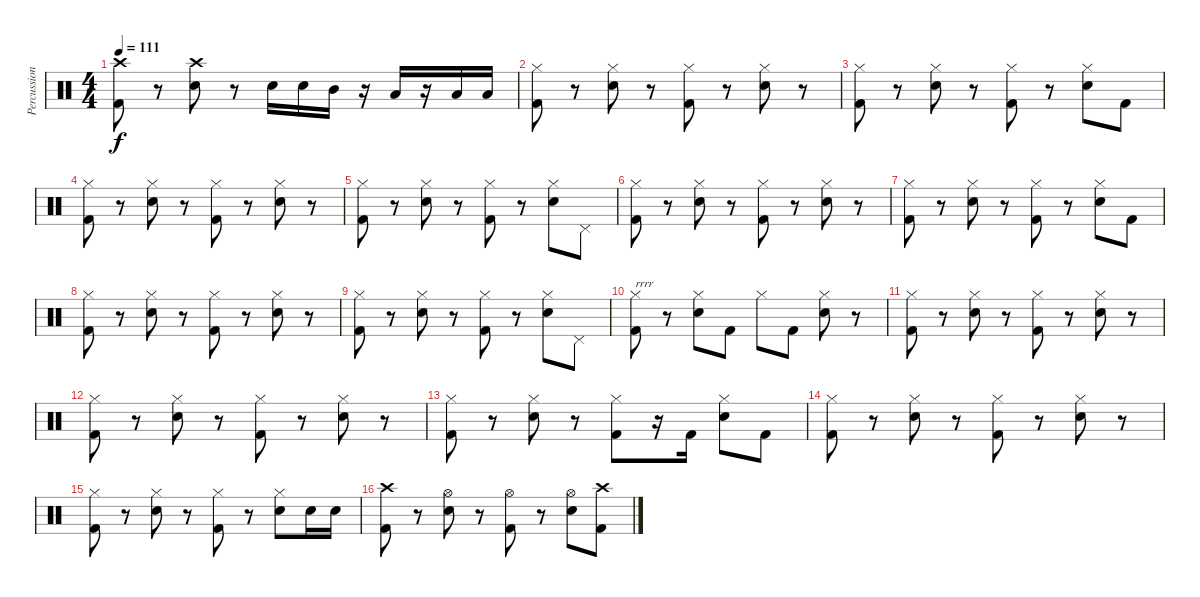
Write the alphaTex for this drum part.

\track ("Percussion" "Percussion") {instrument percussion}
\staff {score}
\articulation defaults
\ts (4 4)
\tempo 111
\clef neutral
\ks c
("Crash high (hit)" "Kick (hit) 2").8{dy f} r.8 ("Crash high (hit)" "Snare (hit) 2").8 r.8 "Snare (hit) 2".16 "Snare (hit) 2".16 "Mid Tom (hit)".16 r.16 "Low Tom (hit)".16 r.16 "Low Tom (hit)".16 "Low Tom (hit)".16 |
("Hi-Hat (closed)" "Kick (hit) 2").8 r.8 ("Hi-Hat (closed)" "Snare (hit) 2").8 r.8 ("Hi-Hat (closed)" "Kick (hit) 2").8 r.8 ("Hi-Hat (closed)" "Snare (hit) 2").8 r.8 |
("Hi-Hat (closed)" "Kick (hit) 2").8 r.8 ("Hi-Hat (closed)" "Snare (hit) 2").8 r.8 ("Hi-Hat (closed)" "Kick (hit) 2").8 r.8 ("Hi-Hat (closed)" "Snare (hit) 2").8 "Kick (hit) 2".8 |
("Hi-Hat (closed)" "Kick (hit) 2").8 r.8 ("Hi-Hat (closed)" "Snare (hit) 2").8 r.8 ("Hi-Hat (closed)" "Kick (hit) 2").8 r.8 ("Hi-Hat (closed)" "Snare (hit) 2").8 r.8 |
("Hi-Hat (closed)" "Kick (hit) 2").8 r.8 ("Hi-Hat (closed)" "Snare (hit) 2").8 r.8 ("Hi-Hat (closed)" "Kick (hit) 2").8 r.8 ("Hi-Hat (closed)" "Snare (hit) 2").8 "Pedal Hi-Hat (hit)".8 |
("Hi-Hat (closed)" "Kick (hit) 2").8 r.8 ("Hi-Hat (closed)" "Snare (hit) 2").8 r.8 ("Hi-Hat (closed)" "Kick (hit) 2").8 r.8 ("Hi-Hat (closed)" "Snare (hit) 2").8 r.8 |
("Hi-Hat (closed)" "Kick (hit) 2").8 r.8 ("Hi-Hat (closed)" "Snare (hit) 2").8 r.8 ("Hi-Hat (closed)" "Kick (hit) 2").8 r.8 ("Hi-Hat (closed)" "Snare (hit) 2").8 "Kick (hit) 2".8 |
("Hi-Hat (closed)" "Kick (hit) 2").8 r.8 ("Hi-Hat (closed)" "Snare (hit) 2").8 r.8 ("Hi-Hat (closed)" "Kick (hit) 2").8 r.8 ("Hi-Hat (closed)" "Snare (hit) 2").8 r.8 |
("Hi-Hat (closed)" "Kick (hit) 2").8 r.8 ("Hi-Hat (closed)" "Snare (hit) 2").8 r.8 ("Hi-Hat (closed)" "Kick (hit) 2").8 r.8 ("Hi-Hat (closed)" "Snare (hit) 2").8 "Pedal Hi-Hat (hit)".8 |
("Hi-Hat (closed)" "Kick (hit) 2").8{txt "rrrr"} r.8 ("Hi-Hat (closed)" "Snare (hit) 2").8 "Kick (hit) 2".8 "Hi-Hat (closed)".8 "Kick (hit) 2".8 ("Hi-Hat (closed)" "Snare (hit) 2").8 r.8 |
("Hi-Hat (closed)" "Kick (hit) 2").8 r.8 ("Hi-Hat (closed)" "Snare (hit) 2").8 r.8 ("Hi-Hat (closed)" "Kick (hit) 2").8 r.8 ("Hi-Hat (closed)" "Snare (hit) 2").8 r.8 |
("Hi-Hat (closed)" "Kick (hit) 2").8 r.8 ("Hi-Hat (closed)" "Snare (hit) 2").8 r.8 ("Hi-Hat (closed)" "Kick (hit) 2").8 r.8 ("Hi-Hat (closed)" "Snare (hit) 2").8 r.8 |
("Hi-Hat (closed)" "Kick (hit) 2").8 r.8 ("Hi-Hat (closed)" "Snare (hit) 2").8 r.8 ("Hi-Hat (closed)" "Kick (hit) 2").8 r.16 "Kick (hit) 2".16 ("Hi-Hat (closed)" "Snare (hit) 2").8 "Kick (hit) 2".8 |
("Hi-Hat (closed)" "Kick (hit) 2").8 r.8 ("Hi-Hat (closed)" "Snare (hit) 2").8 r.8 ("Hi-Hat (closed)" "Kick (hit) 2").8 r.8 ("Hi-Hat (closed)" "Snare (hit) 2").8 r.8 |
("Hi-Hat (closed)" "Kick (hit) 2").8 r.8 ("Hi-Hat (closed)" "Snare (hit) 2").8 r.8 ("Hi-Hat (closed)" "Kick (hit) 2").8 r.8 ("Hi-Hat (closed)" "Snare (hit) 2").8 "Snare (hit) 2".16 "Snare (hit) 2".16 |
("Crash high (hit)" "Kick (hit) 2").8 r.8 ("Hi-Hat (open)" "Snare (hit) 2").8 r.8 ("Hi-Hat (open)" "Kick (hit) 2").8 r.8 ("Hi-Hat (open)" "Snare (hit) 2").8 ("Crash high (hit)" "Kick (hit) 2").8
